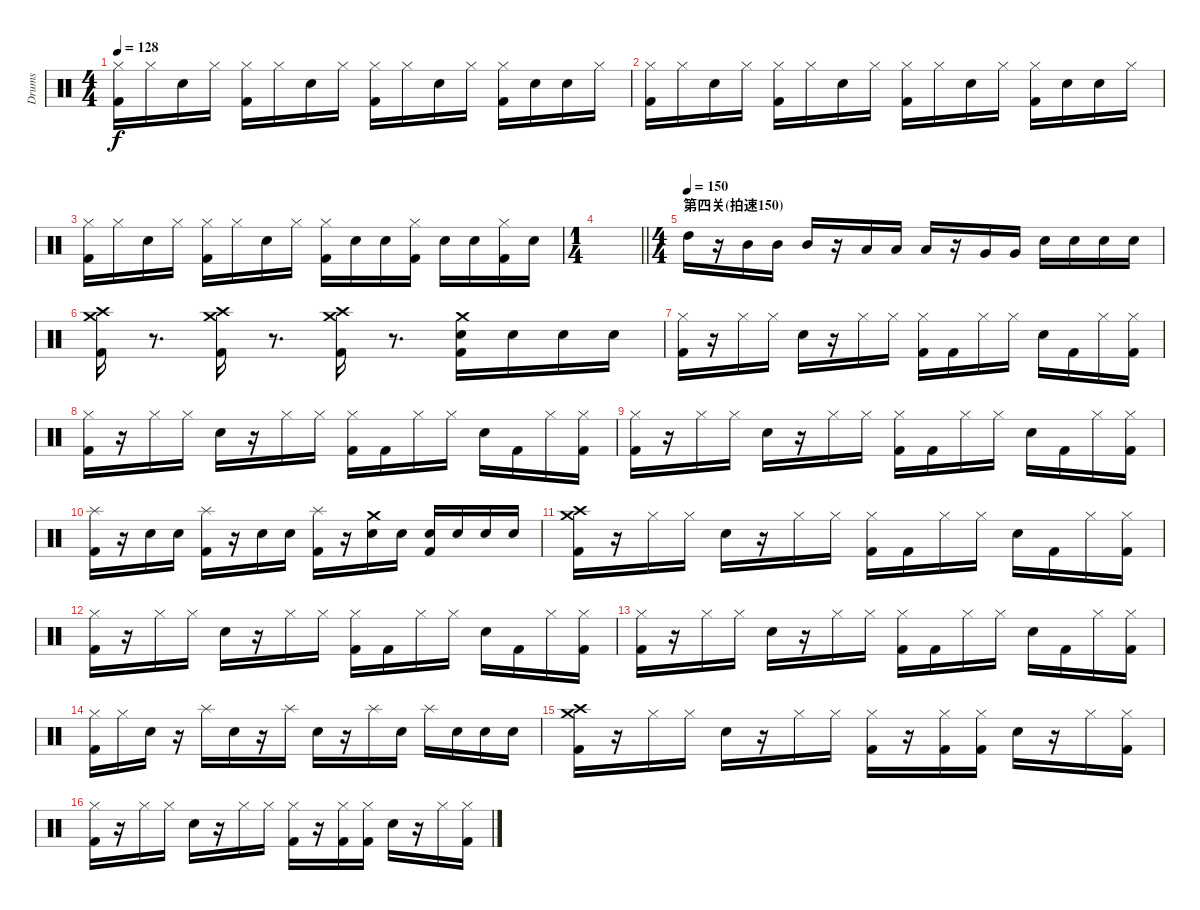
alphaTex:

\track ("Drums" "Drums") {instrument percussion}
\staff {score}
\articulation defaults
\ts (4 4)
\tempo 128
\clef neutral
\ks c
("Hi-Hat (closed)" "Kick (hit) 2").16{dy f} "Hi-Hat (closed)".16 "Snare (hit) 2".16 "Hi-Hat (closed)".16 ("Hi-Hat (closed)" "Kick (hit) 2").16 "Hi-Hat (closed)".16 "Snare (hit) 2".16 "Hi-Hat (closed)".16 ("Hi-Hat (closed)" "Kick (hit) 2").16 "Hi-Hat (closed)".16 "Snare (hit) 2".16 "Hi-Hat (closed)".16 ("Hi-Hat (closed)" "Kick (hit) 2").16 "Snare (hit) 2".16 "Snare (hit) 2".16 "Hi-Hat (closed)".16 |
("Hi-Hat (closed)" "Kick (hit) 2").16{volume 0} "Hi-Hat (closed)".16 "Snare (hit) 2".16 "Hi-Hat (closed)".16 ("Hi-Hat (closed)" "Kick (hit) 2").16 "Hi-Hat (closed)".16 "Snare (hit) 2".16 "Hi-Hat (closed)".16 ("Hi-Hat (closed)" "Kick (hit) 2").16 "Hi-Hat (closed)".16 "Snare (hit) 2".16 "Hi-Hat (closed)".16 ("Hi-Hat (closed)" "Kick (hit) 2").16 "Snare (hit) 2".16 "Snare (hit) 2".16 "Hi-Hat (closed)".16 |
("Hi-Hat (closed)" "Kick (hit) 2").16 "Hi-Hat (closed)".16 "Snare (hit) 2".16 "Hi-Hat (closed)".16 ("Hi-Hat (closed)" "Kick (hit) 2").16 "Hi-Hat (closed)".16 "Snare (hit) 2".16 "Hi-Hat (closed)".16 ("Hi-Hat (closed)" "Kick (hit) 2").16 "Snare (hit) 2".16 "Snare (hit) 2".16 ("Hi-Hat (closed)" "Kick (hit) 2").16 "Snare (hit) 2".16 "Snare (hit) 2".16 ("Hi-Hat (closed)" "Kick (hit) 2").16 "Snare (hit) 2".16 |
\ts (1 4)
\barLineRight lightlight
|
\ts (4 4)
\section ("" "第四关(拍速150)")
\tempo (150)
"High Tom (hit)".16{volume 13} r.16 "Mid Tom (hit)".16 "Mid Tom (hit)".16 "Mid Tom (hit)".16 r.16 "Low Tom (hit)".16 "Low Tom (hit)".16 "Low Tom (hit)".16 r.16 "Very Low Tom (hit)".16 "Very Low Tom (hit)".16 "Snare (hit) 2".16 "Snare (hit) 2".16 "Snare (hit) 2".16 "Snare (hit) 2".16 |
("Crash medium (hit)" "Crash high (hit)" "Kick (hit) 2").16 r.8{d} ("Crash medium (hit)" "Crash high (hit)" "Kick (hit) 2").16 r.8{d} ("Crash medium (hit)" "Crash high (hit)" "Kick (hit) 2").16 r.8{d} ("Crash medium (hit)" "Snare (hit) 2" "Kick (hit) 2").16 "Snare (hit) 2".16 "Snare (hit) 2".16 "Snare (hit) 2".16 |
("Hi-Hat (closed)" "Kick (hit) 2").16 r.16 "Hi-Hat (closed)".16 "Hi-Hat (closed)".16 "Snare (hit) 2".16 r.16 "Hi-Hat (closed)".16 "Hi-Hat (closed)".16 ("Hi-Hat (closed)" "Kick (hit) 2").16 "Kick (hit) 2".16 "Hi-Hat (closed)".16 "Hi-Hat (closed)".16 "Snare (hit) 2".16 "Kick (hit) 2".16 "Hi-Hat (closed)".16 ("Hi-Hat (closed)" "Kick (hit) 2").16 |
("Hi-Hat (closed)" "Kick (hit) 2").16 r.16 "Hi-Hat (closed)".16 "Hi-Hat (closed)".16 "Snare (hit) 2".16 r.16 "Hi-Hat (closed)".16 "Hi-Hat (closed)".16 ("Hi-Hat (closed)" "Kick (hit) 2").16 "Kick (hit) 2".16 "Hi-Hat (closed)".16 "Hi-Hat (closed)".16 "Snare (hit) 2".16 "Kick (hit) 2".16 "Hi-Hat (closed)".16 ("Hi-Hat (closed)" "Kick (hit) 2").16 |
("Hi-Hat (closed)" "Kick (hit) 2").16 r.16 "Hi-Hat (closed)".16 "Hi-Hat (closed)".16 "Snare (hit) 2".16 r.16 "Hi-Hat (closed)".16 "Hi-Hat (closed)".16 ("Hi-Hat (closed)" "Kick (hit) 2").16 "Kick (hit) 2".16 "Hi-Hat (closed)".16 "Hi-Hat (closed)".16 "Snare (hit) 2".16 "Kick (hit) 2".16 "Hi-Hat (closed)".16 ("Hi-Hat (closed)" "Kick (hit) 2").16 |
("Splash (hit)" "Kick (hit) 2").16 r.16 "Snare (hit) 2".16 "Snare (hit) 2".16 ("Splash (hit)" "Kick (hit) 2").16 r.16 "Snare (hit) 2".16 "Snare (hit) 2".16 ("Splash (hit)" "Kick (hit) 2").16 r.16 ("Crash medium (hit)" "Snare (hit) 2").16 "Snare (hit) 2".16 ("Snare (hit) 2" "Kick (hit) 2").16 "Snare (hit) 2".16 "Snare (hit) 2".16 "Snare (hit) 2".16 |
("Crash medium (hit)" "Crash high (hit)" "Kick (hit) 2").16 r.16 "Hi-Hat (closed)".16 "Hi-Hat (closed)".16 "Snare (hit) 2".16 r.16 "Hi-Hat (closed)".16 "Hi-Hat (closed)".16 ("Hi-Hat (closed)" "Kick (hit) 2").16 "Kick (hit) 2".16 "Hi-Hat (closed)".16 "Hi-Hat (closed)".16 "Snare (hit) 2".16 "Kick (hit) 2".16 "Hi-Hat (closed)".16 ("Hi-Hat (closed)" "Kick (hit) 2").16 |
("Hi-Hat (closed)" "Kick (hit) 2").16 r.16 "Hi-Hat (closed)".16 "Hi-Hat (closed)".16 "Snare (hit) 2".16 r.16 "Hi-Hat (closed)".16 "Hi-Hat (closed)".16 ("Hi-Hat (closed)" "Kick (hit) 2").16 "Kick (hit) 2".16 "Hi-Hat (closed)".16 "Hi-Hat (closed)".16 "Snare (hit) 2".16 "Kick (hit) 2".16 "Hi-Hat (closed)".16 ("Hi-Hat (closed)" "Kick (hit) 2").16 |
("Hi-Hat (closed)" "Kick (hit) 2").16 r.16 "Hi-Hat (closed)".16 "Hi-Hat (closed)".16 "Snare (hit) 2".16 r.16 "Hi-Hat (closed)".16 "Hi-Hat (closed)".16 ("Hi-Hat (closed)" "Kick (hit) 2").16 "Kick (hit) 2".16 "Hi-Hat (closed)".16 "Hi-Hat (closed)".16 "Snare (hit) 2".16 "Kick (hit) 2".16 "Hi-Hat (closed)".16 ("Hi-Hat (closed)" "Kick (hit) 2").16 |
("Hi-Hat (closed)" "Kick (hit) 2").16 "Hi-Hat (closed)".16 "Snare (hit) 2".16 r.16 "Splash (hit)".16 "Snare (hit) 2".16 r.16 "Splash (hit)".16 "Snare (hit) 2".16 r.16 "Splash (hit)".16 "Snare (hit) 2".16 "Splash (hit)".16 "Snare (hit) 2".16 "Snare (hit) 2".16 "Snare (hit) 2".16 |
("Crash medium (hit)" "Crash high (hit)" "Kick (hit) 2").16 r.16 "Hi-Hat (closed)".16 "Hi-Hat (closed)".16 "Snare (hit) 2".16 r.16 "Hi-Hat (closed)".16 "Hi-Hat (closed)".16 ("Hi-Hat (closed)" "Kick (hit) 2").16 r.16 ("Hi-Hat (closed)" "Kick (hit) 2").16 ("Hi-Hat (closed)" "Kick (hit) 2").16 "Snare (hit) 2".16 r.16 "Hi-Hat (closed)".16 ("Hi-Hat (closed)" "Kick (hit) 2").16 |
("Hi-Hat (closed)" "Kick (hit) 2").16 r.16 "Hi-Hat (closed)".16 "Hi-Hat (closed)".16 "Snare (hit) 2".16 r.16 "Hi-Hat (closed)".16 "Hi-Hat (closed)".16 ("Hi-Hat (closed)" "Kick (hit) 2").16 r.16 ("Hi-Hat (closed)" "Kick (hit) 2").16 ("Hi-Hat (closed)" "Kick (hit) 2").16 "Snare (hit) 2".16 r.16 "Hi-Hat (closed)".16 ("Hi-Hat (closed)" "Kick (hit) 2").16
